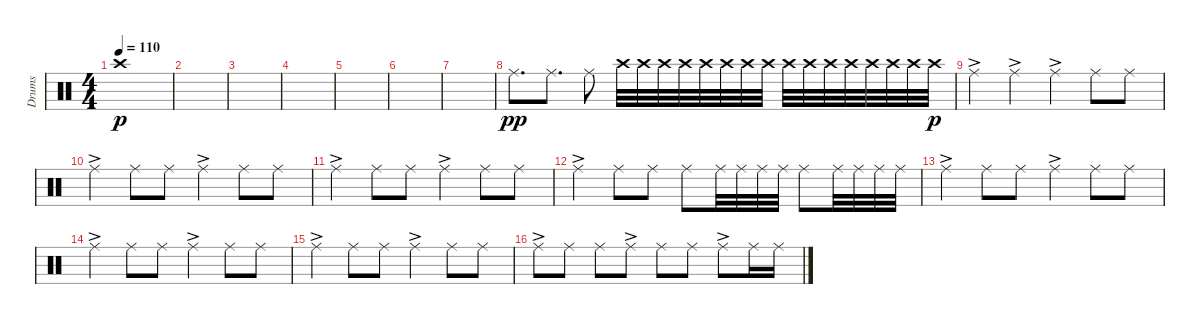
\track ("Drums" "Drums") {instrument percussion}
\staff {score}
\articulation defaults
\ts (4 4)
\tempo 110
\clef neutral
\ks c "Crash high (hit)".1{dy p}
|
|
|
|
|
|
|
"Ride (middle)".8{d dy pp} "Ride (middle)".8{d} "Ride (middle)".8 "Crash high (hit)".32 "Crash high (hit)".32 "Crash high (hit)".32 "Crash high (hit)".32 "Crash high (hit)".32 "Crash high (hit)".32 "Crash high (hit)".32 "Crash high (hit)".32 "Crash high (hit)".32 "Crash high (hit)".32 "Crash high (hit)".32 "Crash high (hit)".32 "Crash high (hit)".32 "Crash high (hit)".32 "Crash high (hit)".32 "Crash high (hit)".32{dy p} |
"Ride (middle)"{ac}.4 "Ride (middle)"{ac}.4 "Ride (middle)"{ac}.4 "Ride (middle)".8 "Ride (middle)".8 |
"Ride (middle)"{ac}.4 "Ride (middle)".8 "Ride (middle)".8 "Ride (middle)"{ac}.4 "Ride (middle)".8 "Ride (middle)".8 |
"Ride (middle)"{ac}.4 "Ride (middle)".8 "Ride (middle)".8 "Ride (middle)"{ac}.4 "Ride (middle)".8 "Ride (middle)".8 |
"Ride (middle)"{ac}.4 "Ride (middle)".8 "Ride (middle)".8 "Ride (middle)".8 "Ride (middle)".32 "Ride (middle)".32 "Ride (middle)".32 "Ride (middle)".32 "Ride (middle)".8 "Ride (middle)".32 "Ride (middle)".32 "Ride (middle)".32 "Ride (middle)".32 |
"Ride (middle)"{ac}.4 "Ride (middle)".8 "Ride (middle)".8 "Ride (middle)"{ac}.4 "Ride (middle)".8 "Ride (middle)".8 |
"Ride (middle)"{ac}.4 "Ride (middle)".8 "Ride (middle)".8 "Ride (middle)"{ac}.4 "Ride (middle)".8 "Ride (middle)".8 |
"Ride (middle)"{ac}.4 "Ride (middle)".8 "Ride (middle)".8 "Ride (middle)"{ac}.4 "Ride (middle)".8 "Ride (middle)".8 |
"Ride (middle)"{ac}.8 "Ride (middle)".8 "Ride (middle)".8 "Ride (middle)"{ac}.8 "Ride (middle)".8 "Ride (middle)".8 "Ride (middle)"{ac}.8 "Ride (middle)".16 "Ride (middle)".16
